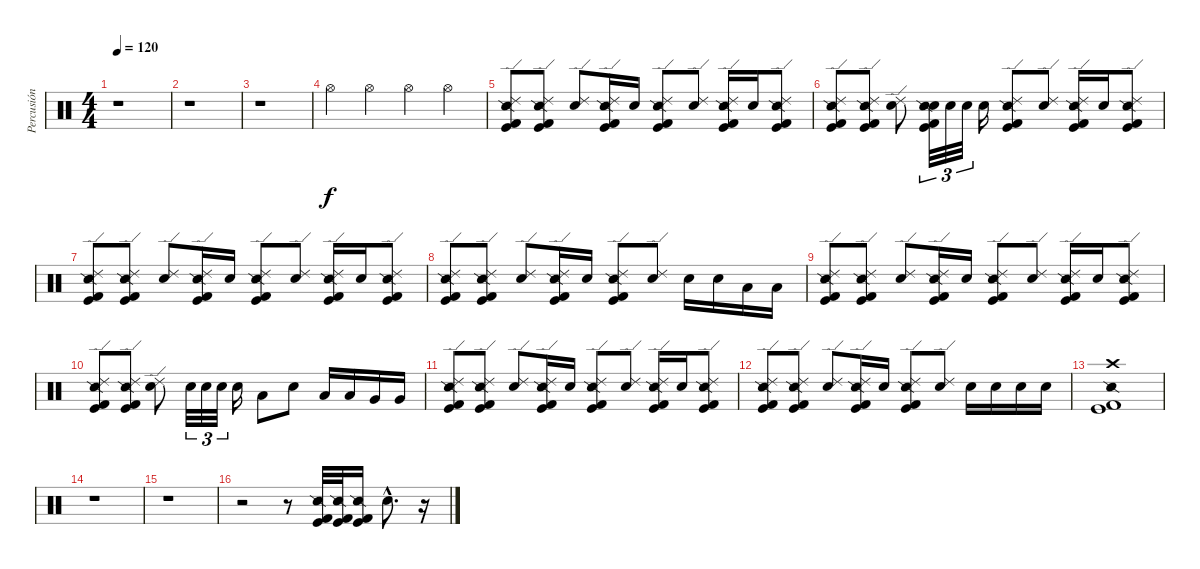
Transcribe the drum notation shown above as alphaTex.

\track ("Percusión" "Percusión") {instrument percussion}
\staff {score}
\articulation defaults
\ts (4 4)
\tempo 120
\clef neutral
\ks c
r.1{dy f} |
r.1 |
r.1 |
"Hi-Hat (open)".4 "Hi-Hat (open)".4 "Hi-Hat (open)".4 "Hi-Hat (open)".4 |
("Ride (edge) 2" "Snare (side stick) 2" "Kick (hit)" "Kick (hit) 2").8 ("Ride (edge) 2" "Snare (side stick) 2" "Kick (hit)" "Kick (hit) 2").8 ("Ride (edge) 2" "Snare (hit) 2").8 ("Ride (edge) 2" "Snare (side stick) 2" "Kick (hit)" "Kick (hit) 2").16 "Snare (hit) 2".16 ("Ride (edge) 2" "Snare (side stick) 2" "Kick (hit)" "Kick (hit) 2").8 ("Ride (edge) 2" "Snare (hit) 2").8 ("Ride (edge) 2" "Snare (side stick) 2" "Kick (hit)" "Kick (hit) 2").16 "Snare (hit) 2".16 ("Ride (edge) 2" "Snare (side stick) 2" "Kick (hit)" "Kick (hit) 2").8 |
("Ride (edge) 2" "Snare (side stick) 2" "Kick (hit)" "Kick (hit) 2").8 ("Ride (edge) 2" "Snare (side stick) 2" "Kick (hit)" "Kick (hit) 2").8 ("Ride (edge) 2" "Snare (hit) 2").8 ("Snare (hit) 2" "Snare (side stick) 2" "Kick (hit)" "Kick (hit) 2").32{tu (3 2)} "Snare (hit) 2".32{tu (3 2)} "Snare (hit) 2".32{tu (3 2)} "Snare (hit) 2".16 ("Ride (edge) 2" "Snare (side stick) 2" "Kick (hit)" "Kick (hit) 2").8 ("Ride (edge) 2" "Snare (hit) 2").8 ("Ride (edge) 2" "Snare (side stick) 2" "Kick (hit)" "Kick (hit) 2").16 "Snare (hit) 2".16 ("Ride (edge) 2" "Snare (side stick) 2" "Kick (hit)" "Kick (hit) 2").8 |
("Ride (edge) 2" "Snare (side stick) 2" "Kick (hit)" "Kick (hit) 2").8 ("Ride (edge) 2" "Snare (side stick) 2" "Kick (hit)" "Kick (hit) 2").8 ("Ride (edge) 2" "Snare (hit) 2").8 ("Ride (edge) 2" "Snare (side stick) 2" "Kick (hit)" "Kick (hit) 2").16 "Snare (hit) 2".16 ("Ride (edge) 2" "Snare (side stick) 2" "Kick (hit)" "Kick (hit) 2").8 ("Ride (edge) 2" "Snare (hit) 2").8 ("Ride (edge) 2" "Snare (side stick) 2" "Kick (hit)" "Kick (hit) 2").16 "Snare (hit) 2".16 ("Ride (edge) 2" "Snare (side stick) 2" "Kick (hit)" "Kick (hit) 2").8 |
("Ride (edge) 2" "Snare (side stick) 2" "Kick (hit)" "Kick (hit) 2").8 ("Ride (edge) 2" "Snare (side stick) 2" "Kick (hit)" "Kick (hit) 2").8 ("Ride (edge) 2" "Snare (hit) 2").8 ("Ride (edge) 2" "Snare (side stick) 2" "Kick (hit)" "Kick (hit) 2").16 "Snare (hit) 2".16 ("Ride (edge) 2" "Snare (side stick) 2" "Kick (hit)" "Kick (hit) 2").8 ("Ride (edge) 2" "Snare (hit) 2").8 "Snare (hit) 2".16 "Snare (hit) 2".16 "Low Tom (hit)".16 "Low Tom (hit)".16 |
("Ride (edge) 2" "Snare (side stick) 2" "Kick (hit)" "Kick (hit) 2").8 ("Ride (edge) 2" "Snare (side stick) 2" "Kick (hit)" "Kick (hit) 2").8 ("Ride (edge) 2" "Snare (hit) 2").8 ("Ride (edge) 2" "Snare (side stick) 2" "Kick (hit)" "Kick (hit) 2").16 "Snare (hit) 2".16 ("Ride (edge) 2" "Snare (side stick) 2" "Kick (hit)" "Kick (hit) 2").8 ("Ride (edge) 2" "Snare (hit) 2").8 ("Ride (edge) 2" "Snare (side stick) 2" "Kick (hit)" "Kick (hit) 2").16 "Snare (hit) 2".16 ("Ride (edge) 2" "Snare (side stick) 2" "Kick (hit)" "Kick (hit) 2").8 |
("Ride (edge) 2" "Snare (side stick) 2" "Kick (hit)" "Kick (hit) 2").8 ("Ride (edge) 2" "Snare (side stick) 2" "Kick (hit)" "Kick (hit) 2").8 ("Ride (edge) 2" "Snare (hit) 2").8 "Snare (hit) 2".32{tu (3 2)} "Snare (hit) 2".32{tu (3 2)} "Snare (hit) 2".32{tu (3 2)} "Snare (hit) 2".16 "Low Tom (hit)".8 "Snare (hit) 2".8 "Low Tom (hit)".16 "Low Tom (hit)".16 "Very Low Tom (hit)".16 "Very Low Tom (hit)".16 |
("Ride (edge) 2" "Snare (side stick) 2" "Kick (hit)" "Kick (hit) 2").8 ("Ride (edge) 2" "Snare (side stick) 2" "Kick (hit)" "Kick (hit) 2").8 ("Ride (edge) 2" "Snare (hit) 2").8 ("Ride (edge) 2" "Snare (side stick) 2" "Kick (hit)" "Kick (hit) 2").16 "Snare (hit) 2".16 ("Ride (edge) 2" "Snare (side stick) 2" "Kick (hit)" "Kick (hit) 2").8 ("Ride (edge) 2" "Snare (hit) 2").8 ("Ride (edge) 2" "Snare (side stick) 2" "Kick (hit)" "Kick (hit) 2").16 "Snare (hit) 2".16 ("Ride (edge) 2" "Snare (side stick) 2" "Kick (hit)" "Kick (hit) 2").8 |
("Ride (edge) 2" "Snare (side stick) 2" "Kick (hit)" "Kick (hit) 2").8 ("Ride (edge) 2" "Snare (side stick) 2" "Kick (hit)" "Kick (hit) 2").8 ("Ride (edge) 2" "Snare (hit) 2").8 ("Ride (edge) 2" "Snare (side stick) 2" "Kick (hit)" "Kick (hit) 2").16 "Snare (hit) 2".16 ("Ride (edge) 2" "Snare (side stick) 2" "Kick (hit)" "Kick (hit) 2").8 ("Ride (edge) 2" "Snare (hit) 2").8 "Snare (hit) 2".16 "Snare (hit) 2".16 "Snare (hit) 2".16 "Snare (hit) 2".16 |
("Crash high (hit)" "Snare (side stick) 2" "Kick (hit)" "Kick (hit) 2").1 |
r.1 |
r.1 |
r.2 r.8 ("Snare (side stick) 2" "Kick (hit)" "Kick (hit) 2").32 ("Snare (side stick) 2" "Kick (hit)" "Kick (hit) 2").32 ("Snare (side stick) 2" "Kick (hit)" "Kick (hit) 2").16 "Snare (hit) 2"{hac}.8{d} r.16
